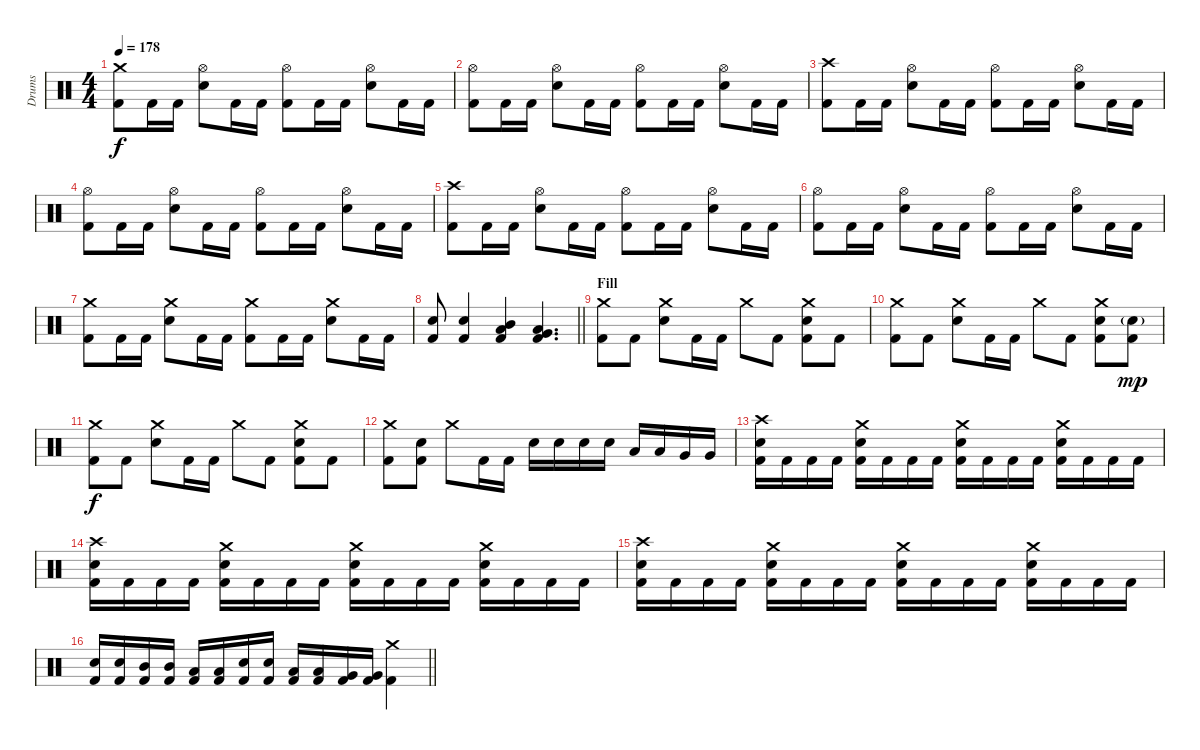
\track ("Drums" "Drums") {instrument percussion}
\staff {score}
\articulation defaults
\ts (4 4)
\tempo 178
\clef neutral
\ks c
("Crash medium (hit)" "Kick (hit) 2").8{dy f} "Kick (hit) 2".16 "Kick (hit) 2".16 ("Hi-Hat (open)" "Snare (hit) 2").8 "Kick (hit) 2".16 "Kick (hit) 2".16 ("Hi-Hat (open)" "Kick (hit) 2").8 "Kick (hit) 2".16 "Kick (hit) 2".16 ("Hi-Hat (open)" "Snare (hit) 2").8 "Kick (hit) 2".16 "Kick (hit) 2".16 |
("Hi-Hat (open)" "Kick (hit) 2").8 "Kick (hit) 2".16 "Kick (hit) 2".16 ("Hi-Hat (open)" "Snare (hit) 2").8 "Kick (hit) 2".16 "Kick (hit) 2".16 ("Hi-Hat (open)" "Kick (hit) 2").8 "Kick (hit) 2".16 "Kick (hit) 2".16 ("Hi-Hat (open)" "Snare (hit) 2").8 "Kick (hit) 2".16 "Kick (hit) 2".16 |
("Crash high (hit)" "Kick (hit) 2").8 "Kick (hit) 2".16 "Kick (hit) 2".16 ("Hi-Hat (open)" "Snare (hit) 2").8 "Kick (hit) 2".16 "Kick (hit) 2".16 ("Hi-Hat (open)" "Kick (hit) 2").8 "Kick (hit) 2".16 "Kick (hit) 2".16 ("Hi-Hat (open)" "Snare (hit) 2").8 "Kick (hit) 2".16 "Kick (hit) 2".16 |
("Hi-Hat (open)" "Kick (hit) 2").8 "Kick (hit) 2".16 "Kick (hit) 2".16 ("Hi-Hat (open)" "Snare (hit) 2").8 "Kick (hit) 2".16 "Kick (hit) 2".16 ("Hi-Hat (open)" "Kick (hit) 2").8 "Kick (hit) 2".16 "Kick (hit) 2".16 ("Hi-Hat (open)" "Snare (hit) 2").8 "Kick (hit) 2".16 "Kick (hit) 2".16 |
("Crash high (hit)" "Kick (hit) 2").8 "Kick (hit) 2".16 "Kick (hit) 2".16 ("Hi-Hat (open)" "Snare (hit) 2").8 "Kick (hit) 2".16 "Kick (hit) 2".16 ("Hi-Hat (open)" "Kick (hit) 2").8 "Kick (hit) 2".16 "Kick (hit) 2".16 ("Hi-Hat (open)" "Snare (hit) 2").8 "Kick (hit) 2".16 "Kick (hit) 2".16 |
("Hi-Hat (open)" "Kick (hit) 2").8 "Kick (hit) 2".16 "Kick (hit) 2".16 ("Hi-Hat (open)" "Snare (hit) 2").8 "Kick (hit) 2".16 "Kick (hit) 2".16 ("Hi-Hat (open)" "Kick (hit) 2").8 "Kick (hit) 2".16 "Kick (hit) 2".16 ("Hi-Hat (open)" "Snare (hit) 2").8 "Kick (hit) 2".16 "Kick (hit) 2".16 |
("Crash medium (hit)" "Kick (hit) 2").8 "Kick (hit) 2".16 "Kick (hit) 2".16 ("Crash medium (hit)" "Snare (hit) 2").8 "Kick (hit) 2".16 "Kick (hit) 2".16 ("Crash medium (hit)" "Kick (hit) 2").8 "Kick (hit) 2".16 "Kick (hit) 2".16 ("Crash medium (hit)" "Snare (hit) 2").8 "Kick (hit) 2".16 "Kick (hit) 2".16 |
\barLineRight lightlight
("Snare (hit) 2" "Kick (hit) 2").8 ("Snare (hit) 2" "Kick (hit) 2").4 ("Mid Tom (hit)" "Low Tom (hit)" "Kick (hit) 2").4 ("Low Tom (hit)" "Very Low Tom (hit)" "Kick (hit) 2").4{d} |
\section ("" "Fill")
("Crash medium (hit)" "Kick (hit) 2").8 "Kick (hit) 2".8 ("Crash medium (hit)" "Snare (hit) 2").8 "Kick (hit) 2".16 "Kick (hit) 2".16 "Crash medium (hit)".8 "Kick (hit) 2".8 ("Crash medium (hit)" "Snare (hit) 2" "Kick (hit) 2").8 "Kick (hit) 2".8 |
("Crash medium (hit)" "Kick (hit) 2").8 "Kick (hit) 2".8 ("Crash medium (hit)" "Snare (hit) 2").8 "Kick (hit) 2".16 "Kick (hit) 2".16 "Crash medium (hit)".8 "Kick (hit) 2".8 ("Crash medium (hit)" "Snare (hit) 2" "Kick (hit) 2").8 ("Snare (hit) 2"{g} "Kick (hit) 2").8{dy mp} |
("Crash medium (hit)" "Kick (hit) 2").8{dy f} "Kick (hit) 2".8 ("Crash medium (hit)" "Snare (hit) 2").8 "Kick (hit) 2".16 "Kick (hit) 2".16 "Crash medium (hit)".8 "Kick (hit) 2".8 ("Crash medium (hit)" "Snare (hit) 2" "Kick (hit) 2").8 "Kick (hit) 2".8 |
("Crash medium (hit)" "Kick (hit) 2").8 ("Snare (hit) 2" "Kick (hit) 2").8 "Crash medium (hit)".8 "Kick (hit) 2".16 "Kick (hit) 2".16 "Snare (hit) 2".16 "Snare (hit) 2".16 "Snare (hit) 2".16 "Snare (hit) 2".16 "Low Tom (hit)".16 "Low Tom (hit)".16 "Very Low Tom (hit)".16 "Very Low Tom (hit)".16 |
("Crash high (hit)" "Snare (hit) 2" "Kick (hit) 2").16 "Kick (hit) 2".16 "Kick (hit) 2".16 "Kick (hit) 2".16 ("Crash medium (hit)" "Snare (hit) 2" "Kick (hit) 2").16 "Kick (hit) 2".16 "Kick (hit) 2".16 "Kick (hit) 2".16 ("Crash medium (hit)" "Snare (hit) 2" "Kick (hit) 2").16 "Kick (hit) 2".16 "Kick (hit) 2".16 "Kick (hit) 2".16 ("Crash medium (hit)" "Snare (hit) 2" "Kick (hit) 2").16 "Kick (hit) 2".16 "Kick (hit) 2".16 "Kick (hit) 2".16 |
("Crash high (hit)" "Snare (hit) 2" "Kick (hit) 2").16 "Kick (hit) 2".16 "Kick (hit) 2".16 "Kick (hit) 2".16 ("Crash medium (hit)" "Snare (hit) 2" "Kick (hit) 2").16 "Kick (hit) 2".16 "Kick (hit) 2".16 "Kick (hit) 2".16 ("Crash medium (hit)" "Snare (hit) 2" "Kick (hit) 2").16 "Kick (hit) 2".16 "Kick (hit) 2".16 "Kick (hit) 2".16 ("Crash medium (hit)" "Snare (hit) 2" "Kick (hit) 2").16 "Kick (hit) 2".16 "Kick (hit) 2".16 "Kick (hit) 2".16 |
("Crash high (hit)" "Snare (hit) 2" "Kick (hit) 2").16 "Kick (hit) 2".16 "Kick (hit) 2".16 "Kick (hit) 2".16 ("Crash medium (hit)" "Snare (hit) 2" "Kick (hit) 2").16 "Kick (hit) 2".16 "Kick (hit) 2".16 "Kick (hit) 2".16 ("Crash medium (hit)" "Snare (hit) 2" "Kick (hit) 2").16 "Kick (hit) 2".16 "Kick (hit) 2".16 "Kick (hit) 2".16 ("Crash medium (hit)" "Snare (hit) 2" "Kick (hit) 2").16 "Kick (hit) 2".16 "Kick (hit) 2".16 "Kick (hit) 2".16 |
\barLineRight lightlight
("Snare (hit) 2" "Kick (hit) 2").16 ("Snare (hit) 2" "Kick (hit) 2").16 ("Mid Tom (hit)" "Kick (hit) 2").16 ("Mid Tom (hit)" "Kick (hit) 2").16 ("Low Tom (hit)" "Kick (hit) 2").16 ("Low Tom (hit)" "Kick (hit) 2").16 ("Snare (hit) 2" "Kick (hit) 2").16 ("Snare (hit) 2" "Kick (hit) 2").16 ("Low Tom (hit)" "Kick (hit) 2").16 ("Low Tom (hit)" "Kick (hit) 2").16 ("Very Low Tom (hit)" "Kick (hit) 2").16 ("Very Low Tom (hit)" "Kick (hit) 2").16 ("Crash medium (hit)" "Kick (hit) 2").4
